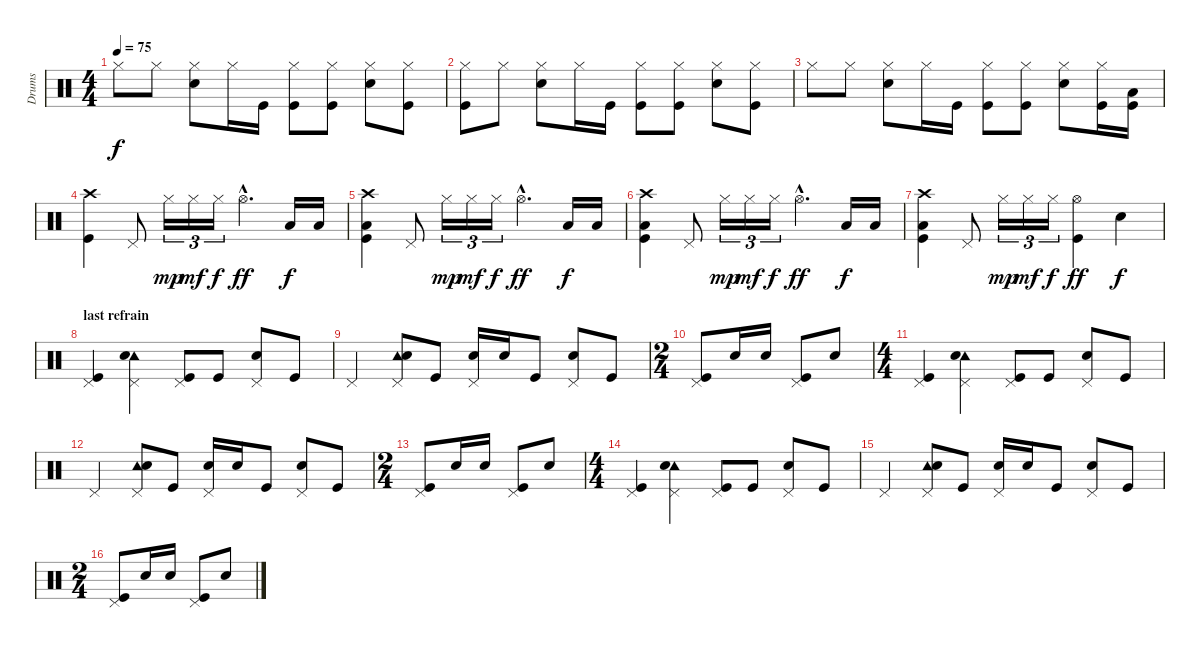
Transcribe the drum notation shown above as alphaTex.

\track ("Drums" "Drums") {instrument percussion}
\staff {score}
\articulation defaults
\ts (4 4)
\tempo 75
\clef neutral
\ks aminor "Hi-Hat (closed)".8{dy f} "Hi-Hat (closed)".8
("Hi-Hat (closed)" "Snare (hit) 2").8 "Hi-Hat (closed)".16 "Kick (hit)".16 ("Hi-Hat (closed)" "Kick (hit)").8 ("Hi-Hat (closed)" "Kick (hit)").8 ("Hi-Hat (closed)" "Snare (hit) 2").8 ("Hi-Hat (closed)" "Kick (hit)").8 |
("Hi-Hat (closed)" "Kick (hit)").8 "Hi-Hat (closed)".8 ("Hi-Hat (closed)" "Snare (hit) 2").8 "Hi-Hat (closed)".16 "Kick (hit)".16 ("Hi-Hat (closed)" "Kick (hit)").8 ("Hi-Hat (closed)" "Kick (hit)").8 ("Hi-Hat (closed)" "Snare (hit) 2").8 ("Hi-Hat (closed)" "Kick (hit)").8 |
"Hi-Hat (closed)".8 "Hi-Hat (closed)".8 ("Hi-Hat (closed)" "Snare (hit) 2").8 "Hi-Hat (closed)".16 "Kick (hit)".16 ("Hi-Hat (closed)" "Kick (hit)").8 ("Hi-Hat (closed)" "Kick (hit)").8 ("Hi-Hat (closed)" "Snare (hit) 2").8 ("Hi-Hat (closed)" "Kick (hit)").16 ("Low Floor Tom (hit)" "Kick (hit)").16 |
("Crash high (hit)" "Kick (hit)").4 "Pedal Hi-Hat (hit)".8 "Hi-Hat (closed)".16{tu (3 2) dy mp} "Hi-Hat (closed)".16{tu (3 2) dy mf} "Hi-Hat (closed)".16{tu (3 2) dy f} "Hi-Hat (open)"{hac}.4{d dy ff} "Low Floor Tom (hit)".16{dy f} "Low Floor Tom (hit)".16 |
("Crash high (hit)" "Low Floor Tom (hit)" "Kick (hit)").4 "Pedal Hi-Hat (hit)".8 "Hi-Hat (closed)".16{tu (3 2) dy mp} "Hi-Hat (closed)".16{tu (3 2) dy mf} "Hi-Hat (closed)".16{tu (3 2) dy f} "Hi-Hat (open)"{hac}.4{d dy ff} "Low Floor Tom (hit)".16{dy f} "Low Floor Tom (hit)".16 |
("Crash high (hit)" "Low Floor Tom (hit)" "Kick (hit)").4 "Pedal Hi-Hat (hit)".8 "Hi-Hat (closed)".16{tu (3 2) dy mp} "Hi-Hat (closed)".16{tu (3 2) dy mf} "Hi-Hat (closed)".16{tu (3 2) dy f} "Hi-Hat (open)"{hac}.4{d dy ff} "Low Floor Tom (hit)".16{dy f} "Low Floor Tom (hit)".16 |
("Crash high (hit)" "Low Floor Tom (hit)" "Kick (hit)").4 "Pedal Hi-Hat (hit)".8 "Hi-Hat (closed)".16{tu (3 2) dy mp} "Hi-Hat (closed)".16{tu (3 2) dy mf} "Hi-Hat (closed)".16{tu (3 2) dy f} ("Hi-Hat (open)" "Kick (hit)").4{dy ff} "Snare (hit) 2".4{dy f} |
\section ("" "last refrain")
("Pedal Hi-Hat (hit)" "Kick (hit)").4 ("Pedal Hi-Hat (hit)" "Tambourine (hit)" "Snare (hit) 2").4 ("Pedal Hi-Hat (hit)" "Kick (hit)").8 "Kick (hit)".8 ("Pedal Hi-Hat (hit)" "Snare (hit) 2").8 "Kick (hit)".8 |
"Pedal Hi-Hat (hit)".4 ("Pedal Hi-Hat (hit)" "Tambourine (hit)" "Snare (hit) 2").8 "Kick (hit)".8 ("Pedal Hi-Hat (hit)" "Snare (hit) 2").16 "Snare (hit) 2".16 "Kick (hit)".8 ("Pedal Hi-Hat (hit)" "Snare (hit) 2").8 "Kick (hit)".8 |
\ts (2 4)
("Pedal Hi-Hat (hit)" "Kick (hit)").8 "Snare (hit) 2".16 "Snare (hit) 2".16 ("Pedal Hi-Hat (hit)" "Kick (hit)").8 "Snare (hit) 2".8 |
\ts (4 4)
("Pedal Hi-Hat (hit)" "Kick (hit)").4 ("Pedal Hi-Hat (hit)" "Tambourine (hit)" "Snare (hit) 2").4 ("Pedal Hi-Hat (hit)" "Kick (hit)").8 "Kick (hit)".8 ("Pedal Hi-Hat (hit)" "Snare (hit) 2").8 "Kick (hit)".8 |
"Pedal Hi-Hat (hit)".4 ("Pedal Hi-Hat (hit)" "Tambourine (hit)" "Snare (hit) 2").8 "Kick (hit)".8 ("Pedal Hi-Hat (hit)" "Snare (hit) 2").16 "Snare (hit) 2".16 "Kick (hit)".8 ("Pedal Hi-Hat (hit)" "Snare (hit) 2").8 "Kick (hit)".8 |
\ts (2 4)
("Pedal Hi-Hat (hit)" "Kick (hit)").8 "Snare (hit) 2".16 "Snare (hit) 2".16 ("Pedal Hi-Hat (hit)" "Kick (hit)").8 "Snare (hit) 2".8 |
\ts (4 4)
("Pedal Hi-Hat (hit)" "Kick (hit)").4 ("Pedal Hi-Hat (hit)" "Tambourine (hit)" "Snare (hit) 2").4 ("Pedal Hi-Hat (hit)" "Kick (hit)").8 "Kick (hit)".8 ("Pedal Hi-Hat (hit)" "Snare (hit) 2").8 "Kick (hit)".8 |
"Pedal Hi-Hat (hit)".4 ("Pedal Hi-Hat (hit)" "Tambourine (hit)" "Snare (hit) 2").8 "Kick (hit)".8 ("Pedal Hi-Hat (hit)" "Snare (hit) 2").16 "Snare (hit) 2".16 "Kick (hit)".8 ("Pedal Hi-Hat (hit)" "Snare (hit) 2").8 "Kick (hit)".8 |
\ts (2 4)
("Pedal Hi-Hat (hit)" "Kick (hit)").8 "Snare (hit) 2".16 "Snare (hit) 2".16 ("Pedal Hi-Hat (hit)" "Kick (hit)").8 "Snare (hit) 2".8
